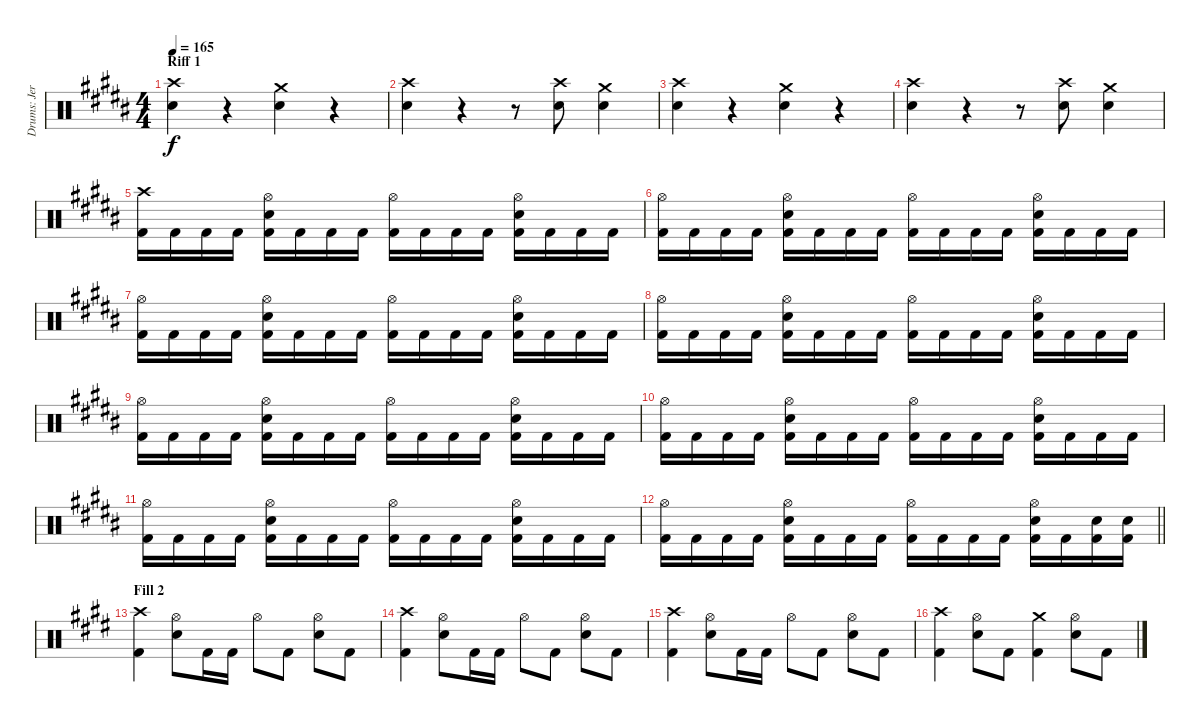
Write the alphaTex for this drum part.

\track ("Drums: Jere Luokkamäki" "Drums: Jer") {instrument percussion}
\staff {score}
\articulation defaults
\ts (4 4)
\section ("" "Riff 1")
\tempo 165
\clef neutral
\ks g#minor
("Crash high (hit)" "Electric Snare (hit)").4{dy f} r.4 ("Crash medium (hit)" "Electric Snare (hit)").4 r.4 |
("Crash high (hit)" "Electric Snare (hit)").4 r.4 r.8 ("Crash high (hit)" "Electric Snare (hit)").8 ("Crash medium (hit)" "Electric Snare (hit)").4 |
("Crash high (hit)" "Electric Snare (hit)").4 r.4 ("Crash medium (hit)" "Electric Snare (hit)").4 r.4 |
("Crash high (hit)" "Electric Snare (hit)").4 r.4 r.8 ("Crash high (hit)" "Electric Snare (hit)").8 ("Crash medium (hit)" "Electric Snare (hit)").4 |
("Crash high (hit)" "Kick (hit) 2").16 "Kick (hit) 2".16 "Kick (hit) 2".16 "Kick (hit) 2".16 ("Hi-Hat (open)" "Electric Snare (hit)" "Kick (hit) 2").16 "Kick (hit) 2".16 "Kick (hit) 2".16 "Kick (hit) 2".16 ("Hi-Hat (open)" "Kick (hit) 2").16 "Kick (hit) 2".16 "Kick (hit) 2".16 "Kick (hit) 2".16 ("Hi-Hat (open)" "Electric Snare (hit)" "Kick (hit) 2").16 "Kick (hit) 2".16 "Kick (hit) 2".16 "Kick (hit) 2".16 |
("Hi-Hat (open)" "Kick (hit) 2").16 "Kick (hit) 2".16 "Kick (hit) 2".16 "Kick (hit) 2".16 ("Hi-Hat (open)" "Electric Snare (hit)" "Kick (hit) 2").16 "Kick (hit) 2".16 "Kick (hit) 2".16 "Kick (hit) 2".16 ("Hi-Hat (open)" "Kick (hit) 2").16 "Kick (hit) 2".16 "Kick (hit) 2".16 "Kick (hit) 2".16 ("Hi-Hat (open)" "Electric Snare (hit)" "Kick (hit) 2").16 "Kick (hit) 2".16 "Kick (hit) 2".16 "Kick (hit) 2".16 |
("Hi-Hat (open)" "Kick (hit) 2").16 "Kick (hit) 2".16 "Kick (hit) 2".16 "Kick (hit) 2".16 ("Hi-Hat (open)" "Electric Snare (hit)" "Kick (hit) 2").16 "Kick (hit) 2".16 "Kick (hit) 2".16 "Kick (hit) 2".16 ("Hi-Hat (open)" "Kick (hit) 2").16 "Kick (hit) 2".16 "Kick (hit) 2".16 "Kick (hit) 2".16 ("Hi-Hat (open)" "Electric Snare (hit)" "Kick (hit) 2").16 "Kick (hit) 2".16 "Kick (hit) 2".16 "Kick (hit) 2".16 |
("Hi-Hat (open)" "Kick (hit) 2").16 "Kick (hit) 2".16 "Kick (hit) 2".16 "Kick (hit) 2".16 ("Hi-Hat (open)" "Electric Snare (hit)" "Kick (hit) 2").16 "Kick (hit) 2".16 "Kick (hit) 2".16 "Kick (hit) 2".16 ("Hi-Hat (open)" "Kick (hit) 2").16 "Kick (hit) 2".16 "Kick (hit) 2".16 "Kick (hit) 2".16 ("Hi-Hat (open)" "Electric Snare (hit)" "Kick (hit) 2").16 "Kick (hit) 2".16 "Kick (hit) 2".16 "Kick (hit) 2".16 |
("Hi-Hat (open)" "Kick (hit) 2").16 "Kick (hit) 2".16 "Kick (hit) 2".16 "Kick (hit) 2".16 ("Hi-Hat (open)" "Electric Snare (hit)" "Kick (hit) 2").16 "Kick (hit) 2".16 "Kick (hit) 2".16 "Kick (hit) 2".16 ("Hi-Hat (open)" "Kick (hit) 2").16 "Kick (hit) 2".16 "Kick (hit) 2".16 "Kick (hit) 2".16 ("Hi-Hat (open)" "Electric Snare (hit)" "Kick (hit) 2").16 "Kick (hit) 2".16 "Kick (hit) 2".16 "Kick (hit) 2".16 |
("Hi-Hat (open)" "Kick (hit) 2").16 "Kick (hit) 2".16 "Kick (hit) 2".16 "Kick (hit) 2".16 ("Hi-Hat (open)" "Electric Snare (hit)" "Kick (hit) 2").16 "Kick (hit) 2".16 "Kick (hit) 2".16 "Kick (hit) 2".16 ("Hi-Hat (open)" "Kick (hit) 2").16 "Kick (hit) 2".16 "Kick (hit) 2".16 "Kick (hit) 2".16 ("Hi-Hat (open)" "Electric Snare (hit)" "Kick (hit) 2").16 "Kick (hit) 2".16 "Kick (hit) 2".16 "Kick (hit) 2".16 |
("Hi-Hat (open)" "Kick (hit) 2").16 "Kick (hit) 2".16 "Kick (hit) 2".16 "Kick (hit) 2".16 ("Hi-Hat (open)" "Electric Snare (hit)" "Kick (hit) 2").16 "Kick (hit) 2".16 "Kick (hit) 2".16 "Kick (hit) 2".16 ("Hi-Hat (open)" "Kick (hit) 2").16 "Kick (hit) 2".16 "Kick (hit) 2".16 "Kick (hit) 2".16 ("Hi-Hat (open)" "Electric Snare (hit)" "Kick (hit) 2").16 "Kick (hit) 2".16 "Kick (hit) 2".16 "Kick (hit) 2".16 |
\barLineRight lightlight
("Hi-Hat (open)" "Kick (hit) 2").16 "Kick (hit) 2".16 "Kick (hit) 2".16 "Kick (hit) 2".16 ("Hi-Hat (open)" "Electric Snare (hit)" "Kick (hit) 2").16 "Kick (hit) 2".16 "Kick (hit) 2".16 "Kick (hit) 2".16 ("Hi-Hat (open)" "Kick (hit) 2").16 "Kick (hit) 2".16 "Kick (hit) 2".16 "Kick (hit) 2".16 ("Hi-Hat (open)" "Electric Snare (hit)" "Kick (hit) 2").16 "Kick (hit) 2".16 ("Electric Snare (hit)" "Kick (hit) 2").16 ("Electric Snare (hit)" "Kick (hit) 2").16 |
\section ("" "Fill 2")
\ks c#minor
("Crash high (hit)" "Kick (hit) 2").4 ("Hi-Hat (open)" "Electric Snare (hit)").8 "Kick (hit) 2".16 "Kick (hit) 2".16 "Hi-Hat (open)".8 "Kick (hit) 2".8 ("Hi-Hat (open)" "Electric Snare (hit)").8 "Kick (hit) 2".8 |
("Crash high (hit)" "Kick (hit) 2").4 ("Hi-Hat (open)" "Electric Snare (hit)").8 "Kick (hit) 2".16 "Kick (hit) 2".16 "Hi-Hat (open)".8 "Kick (hit) 2".8 ("Hi-Hat (open)" "Electric Snare (hit)").8 "Kick (hit) 2".8 |
("Crash high (hit)" "Kick (hit) 2").4 ("Hi-Hat (open)" "Electric Snare (hit)").8 "Kick (hit) 2".16 "Kick (hit) 2".16 "Hi-Hat (open)".8 "Kick (hit) 2".8 ("Hi-Hat (open)" "Electric Snare (hit)").8 "Kick (hit) 2".8 |
("Crash high (hit)" "Kick (hit) 2").4 ("Hi-Hat (open)" "Electric Snare (hit)").8 "Kick (hit) 2".8 ("Crash medium (hit)" "Kick (hit) 2").4 ("Hi-Hat (open)" "Electric Snare (hit)").8 "Kick (hit) 2".8
